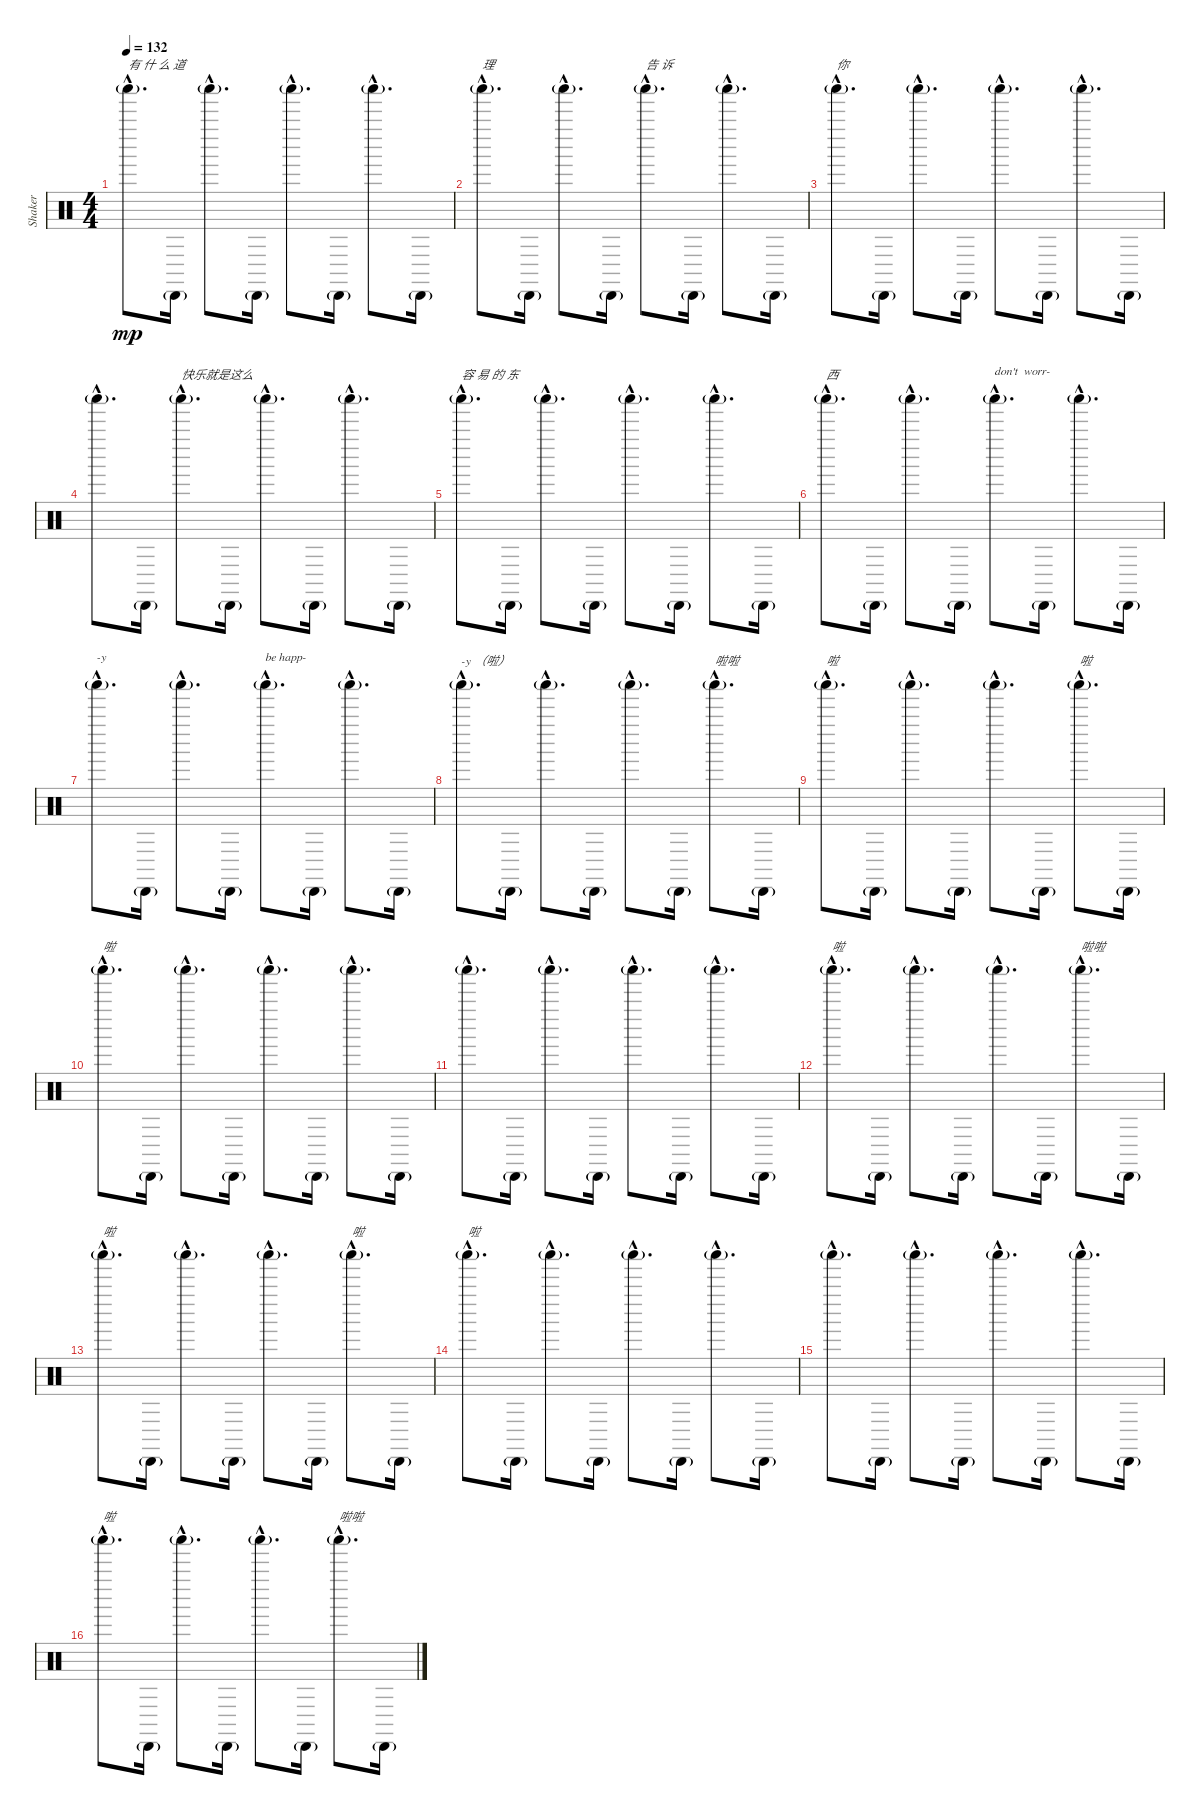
\track ("Shaker" "Shaker") {instrument percussion}
\staff {score}
\articulation defaults
\ts (4 4)
\tempo 132
\clef neutral
\ks c "Shaker (hit)"{g hac}.8{d txt "有 什 么 道" dy mp} "Cabasa (hit)"{g}.16 "Shaker (hit)"{g hac}.8{d} "Cabasa (hit)"{g}.16 "Shaker (hit)"{g hac}.8{d} "Cabasa (hit)"{g}.16 "Shaker (hit)"{g hac}.8{d} "Cabasa (hit)"{g}.16
|
"Shaker (hit)"{g hac}.8{d txt "理"} "Cabasa (hit)"{g}.16 "Shaker (hit)"{g hac}.8{d} "Cabasa (hit)"{g}.16 "Shaker (hit)"{g hac}.8{d txt "告 诉"} "Cabasa (hit)"{g}.16 "Shaker (hit)"{g hac}.8{d} "Cabasa (hit)"{g}.16 |
"Shaker (hit)"{g hac}.8{d txt "你"} "Cabasa (hit)"{g}.16 "Shaker (hit)"{g hac}.8{d} "Cabasa (hit)"{g}.16 "Shaker (hit)"{g hac}.8{d} "Cabasa (hit)"{g}.16 "Shaker (hit)"{g hac}.8{d} "Cabasa (hit)"{g}.16 |
"Shaker (hit)"{g hac}.8{d} "Cabasa (hit)"{g}.16 "Shaker (hit)"{g hac}.8{d txt "快乐就是这么"} "Cabasa (hit)"{g}.16 "Shaker (hit)"{g hac}.8{d} "Cabasa (hit)"{g}.16 "Shaker (hit)"{g hac}.8{d} "Cabasa (hit)"{g}.16 |
"Shaker (hit)"{g hac}.8{d txt "容 易 的 东"} "Cabasa (hit)"{g}.16 "Shaker (hit)"{g hac}.8{d} "Cabasa (hit)"{g}.16 "Shaker (hit)"{g hac}.8{d} "Cabasa (hit)"{g}.16 "Shaker (hit)"{g hac}.8{d} "Cabasa (hit)"{g}.16 |
"Shaker (hit)"{g hac}.8{d txt "西"} "Cabasa (hit)"{g}.16 "Shaker (hit)"{g hac}.8{d} "Cabasa (hit)"{g}.16 "Shaker (hit)"{g hac}.8{d txt "don't  worr-"} "Cabasa (hit)"{g}.16 "Shaker (hit)"{g hac}.8{d} "Cabasa (hit)"{g}.16 |
"Shaker (hit)"{g hac}.8{d txt "-y"} "Cabasa (hit)"{g}.16 "Shaker (hit)"{g hac}.8{d} "Cabasa (hit)"{g}.16 "Shaker (hit)"{g hac}.8{d txt "be happ-"} "Cabasa (hit)"{g}.16 "Shaker (hit)"{g hac}.8{d} "Cabasa (hit)"{g}.16 |
"Shaker (hit)"{g hac}.8{d txt "-y （啦）"} "Cabasa (hit)"{g}.16 "Shaker (hit)"{g hac}.8{d} "Cabasa (hit)"{g}.16 "Shaker (hit)"{g hac}.8{d} "Cabasa (hit)"{g}.16 "Shaker (hit)"{g hac}.8{d txt "啦啦 "} "Cabasa (hit)"{g}.16 |
"Shaker (hit)"{g hac}.8{d txt "啦"} "Cabasa (hit)"{g}.16 "Shaker (hit)"{g hac}.8{d} "Cabasa (hit)"{g}.16 "Shaker (hit)"{g hac}.8{d} "Cabasa (hit)"{g}.16 "Shaker (hit)"{g hac}.8{d txt "啦"} "Cabasa (hit)"{g}.16 |
"Shaker (hit)"{g hac}.8{d txt "啦"} "Cabasa (hit)"{g}.16 "Shaker (hit)"{g hac}.8{d} "Cabasa (hit)"{g}.16 "Shaker (hit)"{g hac}.8{d} "Cabasa (hit)"{g}.16 "Shaker (hit)"{g hac}.8{d} "Cabasa (hit)"{g}.16 |
"Shaker (hit)"{g hac}.8{d} "Cabasa (hit)"{g}.16 "Shaker (hit)"{g hac}.8{d} "Cabasa (hit)"{g}.16 "Shaker (hit)"{g hac}.8{d} "Cabasa (hit)"{g}.16 "Shaker (hit)"{g hac}.8{d} "Cabasa (hit)"{g}.16 |
"Shaker (hit)"{g hac}.8{d txt "啦"} "Cabasa (hit)"{g}.16 "Shaker (hit)"{g hac}.8{d} "Cabasa (hit)"{g}.16 "Shaker (hit)"{g hac}.8{d} "Cabasa (hit)"{g}.16 "Shaker (hit)"{g hac}.8{d txt "啦啦"} "Cabasa (hit)"{g}.16 |
"Shaker (hit)"{g hac}.8{d txt "啦"} "Cabasa (hit)"{g}.16 "Shaker (hit)"{g hac}.8{d} "Cabasa (hit)"{g}.16 "Shaker (hit)"{g hac}.8{d} "Cabasa (hit)"{g}.16 "Shaker (hit)"{g hac}.8{d txt "啦"} "Cabasa (hit)"{g}.16 |
"Shaker (hit)"{g hac}.8{d txt "啦"} "Cabasa (hit)"{g}.16 "Shaker (hit)"{g hac}.8{d} "Cabasa (hit)"{g}.16 "Shaker (hit)"{g hac}.8{d} "Cabasa (hit)"{g}.16 "Shaker (hit)"{g hac}.8{d} "Cabasa (hit)"{g}.16 |
"Shaker (hit)"{g hac}.8{d} "Cabasa (hit)"{g}.16 "Shaker (hit)"{g hac}.8{d} "Cabasa (hit)"{g}.16 "Shaker (hit)"{g hac}.8{d} "Cabasa (hit)"{g}.16 "Shaker (hit)"{g hac}.8{d} "Cabasa (hit)"{g}.16 |
"Shaker (hit)"{g hac}.8{d txt "啦"} "Cabasa (hit)"{g}.16 "Shaker (hit)"{g hac}.8{d} "Cabasa (hit)"{g}.16 "Shaker (hit)"{g hac}.8{d} "Cabasa (hit)"{g}.16 "Shaker (hit)"{g hac}.8{d txt "啦啦"} "Cabasa (hit)"{g}.16
